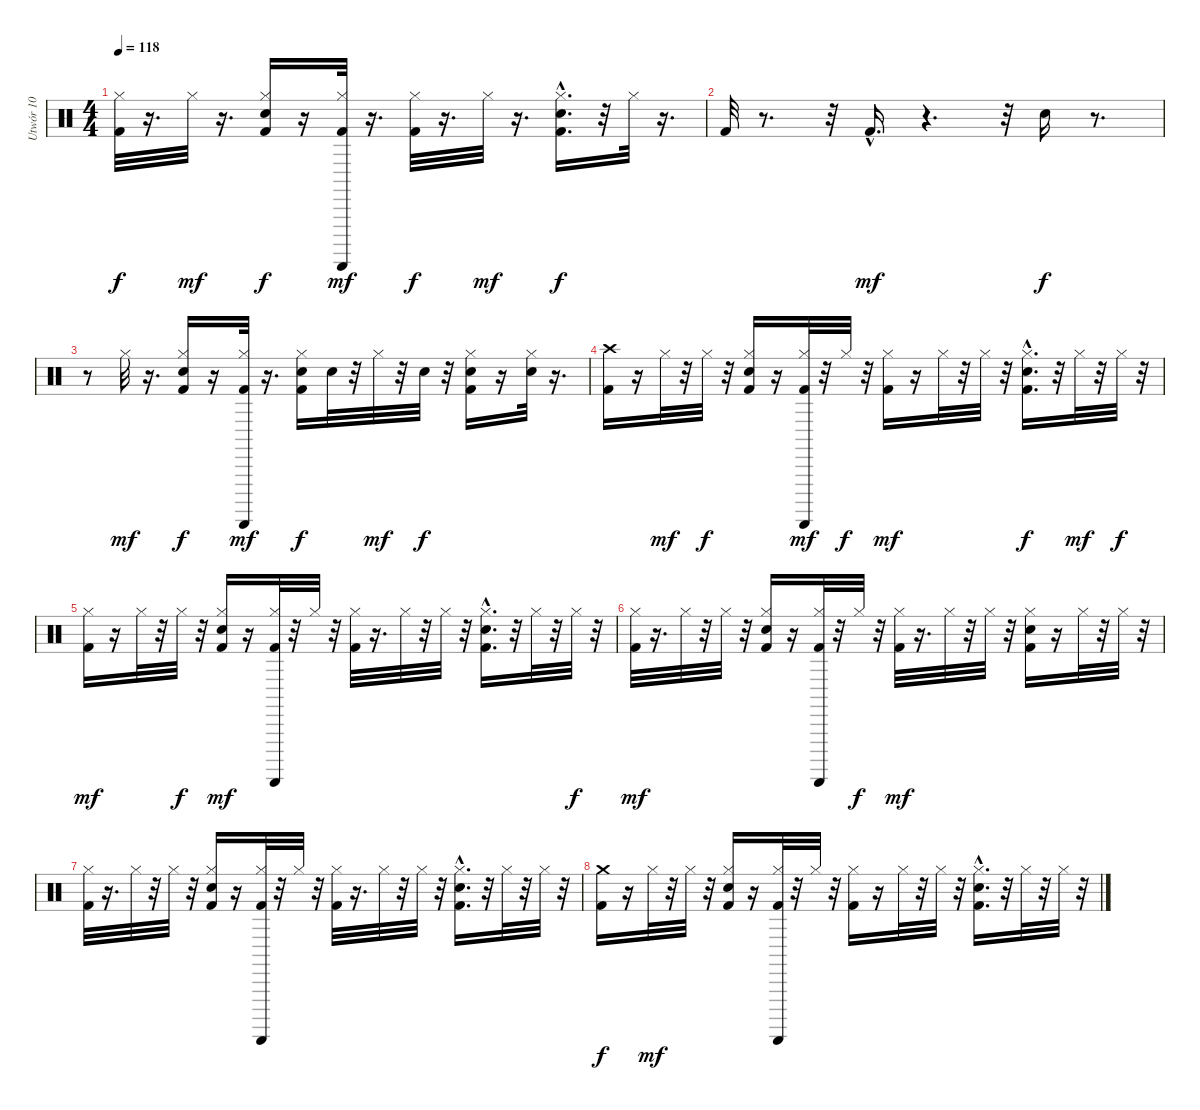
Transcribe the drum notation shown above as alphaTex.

\track ("Utwór 10" "Utwór 10") {instrument percussion}
\staff {score}
\articulation defaults
\ts (4 4)
\tempo 118
\clef neutral
\ks c
("Kick (hit) 2" "Hi-Hat (closed)").32{dy f} r.16{d} "Hi-Hat (closed)".32{dy mf} r.16{d} ("Kick (hit) 2" "Snare (hit) 2" "Hi-Hat (closed)").16{dy f} r.16 ("Kick (hit) 2" "Hi-Hat (closed)" "Guiro (scrap-return)").32{dy mf} r.16{d} ("Kick (hit) 2" "Hi-Hat (closed)").32{dy f} r.16{d} "Hi-Hat (closed)".32{dy mf} r.16{d} ("Kick (hit) 2" "Snare (hit) 2"{hac} "Hi-Hat (closed)").16{d dy f} r.32 "Hi-Hat (closed)".32 r.16{d} |
"Kick (hit) 2".32 r.8{d} r.32 "Kick (hit) 2"{hac}.16{d dy mf} r.4{d} r.32 "Snare (hit) 2".16{dy f} r.8{d} |
r.8 "Hi-Hat (closed)".32{dy mf} r.16{d} ("Kick (hit) 2" "Snare (hit) 2" "Hi-Hat (closed)").16{dy f} r.16 ("Kick (hit) 2" "Hi-Hat (closed)" "Guiro (scrap-return)").32{dy mf} r.16{d} ("Kick (hit) 2" "Snare (hit) 2" "Hi-Hat (closed)").16{dy f} "Snare (hit) 2".32 r.32 "Hi-Hat (closed)".32{dy mf} r.32 "Snare (hit) 2".32{dy f} r.32 ("Kick (hit) 2" "Snare (hit) 2" "Hi-Hat (closed)").16 r.16 ("Snare (hit) 2" "Hi-Hat (closed)").32 r.16{d} |
("Kick (hit) 2" "Crash high (hit)").16 r.16 "Hi-Hat (closed)".32{dy mf} r.32 "Hi-Hat (closed)".32{dy f} r.32 ("Kick (hit) 2" "Snare (hit) 2" "Hi-Hat (closed)").16 r.16 ("Kick (hit) 2" "Hi-Hat (closed)" "Guiro (scrap-return)").32{dy mf} r.32 "Hi-Hat (closed)".32{dy f} r.32 ("Kick (hit) 2" "Hi-Hat (closed)").16{dy mf} r.16 "Hi-Hat (closed)".32 r.32 "Hi-Hat (closed)".32 r.32 ("Kick (hit) 2" "Snare (hit) 2"{hac} "Hi-Hat (closed)").16{d dy f} r.32 "Hi-Hat (closed)".32{dy mf} r.32 "Hi-Hat (closed)".32{dy f} r.32 |
("Kick (hit) 2" "Hi-Hat (closed)").16{dy mf} r.16 "Hi-Hat (closed)".32 r.32 "Hi-Hat (closed)".32{dy f} r.32 ("Kick (hit) 2" "Snare (hit) 2" "Hi-Hat (closed)").16{dy mf} r.16 ("Kick (hit) 2" "Hi-Hat (closed)" "Guiro (scrap-return)").32 r.32 "Hi-Hat (closed)".32 r.32 ("Kick (hit) 2" "Hi-Hat (closed)").32 r.16{d} "Hi-Hat (closed)".32 r.32 "Hi-Hat (closed)".32 r.32 ("Kick (hit) 2" "Snare (hit) 2"{hac} "Hi-Hat (closed)").16{d} r.32 "Hi-Hat (closed)".32 r.32 "Hi-Hat (closed)".32{dy f} r.32 |
("Kick (hit) 2" "Hi-Hat (closed)").32{dy mf} r.16{d} "Hi-Hat (closed)".32 r.32 "Hi-Hat (closed)".32 r.32 ("Kick (hit) 2" "Snare (hit) 2" "Hi-Hat (closed)").16 r.16 ("Kick (hit) 2" "Hi-Hat (closed)" "Guiro (scrap-return)").32 r.32 "Hi-Hat (closed)".32{dy f} r.32 ("Kick (hit) 2" "Hi-Hat (closed)").32{dy mf} r.16{d} "Hi-Hat (closed)".32 r.32 "Hi-Hat (closed)".32 r.32 ("Kick (hit) 2" "Snare (hit) 2" "Hi-Hat (closed)").16 r.16 "Hi-Hat (closed)".32 r.32 "Hi-Hat (closed)".32 r.32 |
("Kick (hit) 2" "Hi-Hat (closed)").32 r.16{d} "Hi-Hat (closed)".32 r.32 "Hi-Hat (closed)".32 r.32 ("Kick (hit) 2" "Snare (hit) 2" "Hi-Hat (closed)").16 r.16 ("Kick (hit) 2" "Hi-Hat (closed)" "Guiro (scrap-return)").32 r.32 "Hi-Hat (closed)".32 r.32 ("Kick (hit) 2" "Hi-Hat (closed)").32 r.16{d} "Hi-Hat (closed)".32 r.32 "Hi-Hat (closed)".32 r.32 ("Kick (hit) 2" "Snare (hit) 2"{hac} "Hi-Hat (closed)").16{d} r.32 "Hi-Hat (closed)".32 r.32 "Hi-Hat (closed)".32 r.32 |
("Kick (hit) 2" "Crash medium (hit)").16{dy f} r.16 "Hi-Hat (closed)".32{dy mf} r.32 "Hi-Hat (closed)".32 r.32 ("Kick (hit) 2" "Snare (hit) 2" "Hi-Hat (closed)").16 r.16 ("Kick (hit) 2" "Hi-Hat (closed)" "Guiro (scrap-return)").32 r.32 "Hi-Hat (closed)".32 r.32 ("Kick (hit) 2" "Hi-Hat (closed)").16 r.16 "Hi-Hat (closed)".32 r.32 "Hi-Hat (closed)".32 r.32 ("Kick (hit) 2" "Snare (hit) 2"{hac} "Hi-Hat (closed)").16{d} r.32 "Hi-Hat (closed)".32 r.32 "Hi-Hat (closed)".32 r.32
